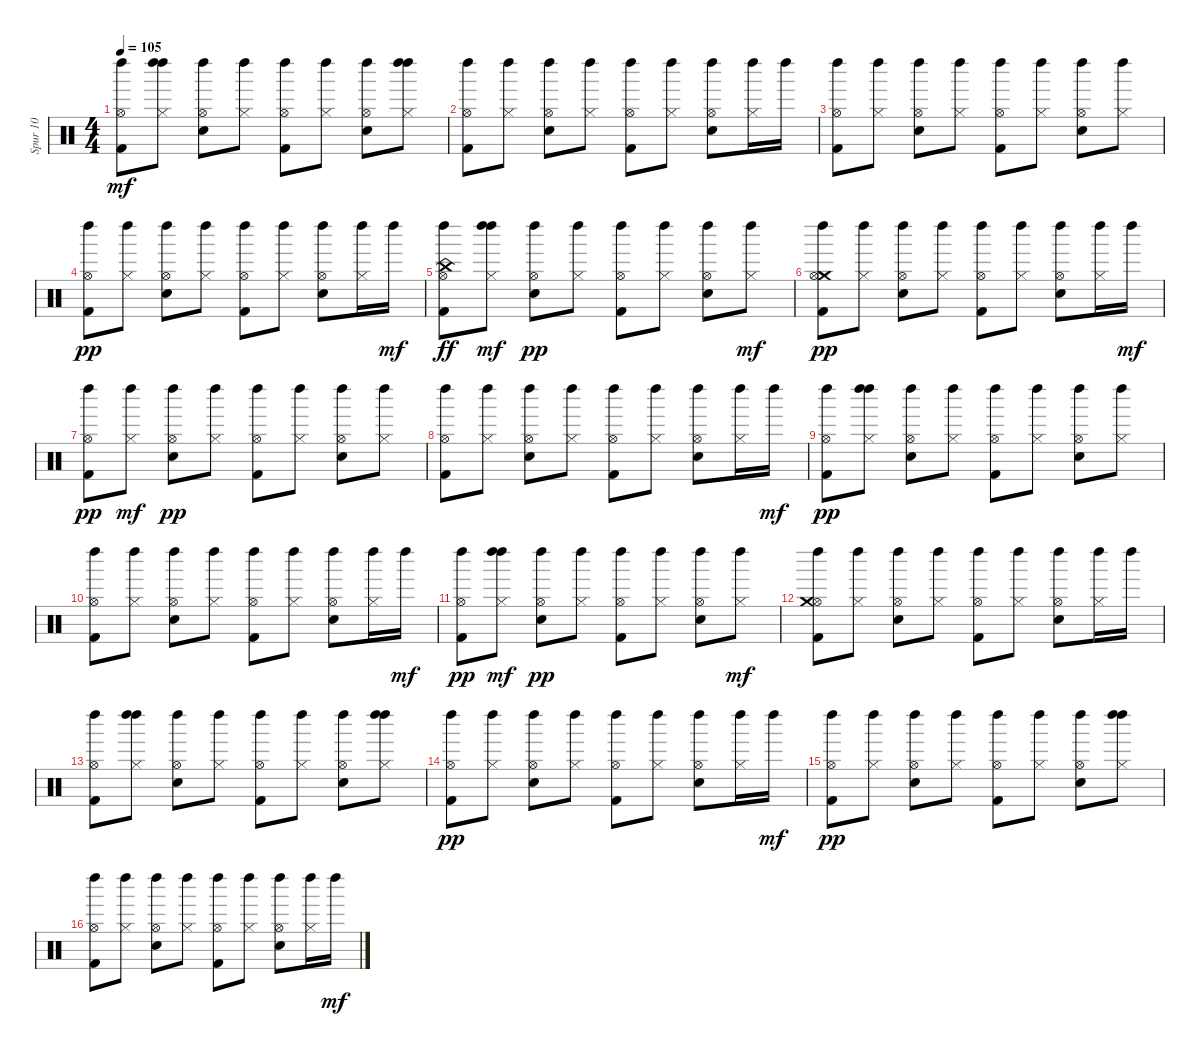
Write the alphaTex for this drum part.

\track ("Spur 10" "Spur 10") {instrument percussion}
\staff {score}
\articulation defaults
\ts (4 4)
\tempo 105
\clef neutral
\ks c
("Hi-Hat (open)" "Kick (hit) 2" "Left Maraca (hit)").8{dy mf} ("Hi-Hat (closed)" "Left Maraca (hit)" "Left Maraca (hit)").8 ("Hi-Hat (open)" "Snare (hit) 2" "Left Maraca (hit)").8 ("Hi-Hat (closed)" "Left Maraca (hit)").8 ("Hi-Hat (open)" "Kick (hit) 2" "Left Maraca (hit)").8 ("Hi-Hat (closed)" "Left Maraca (hit)").8 ("Hi-Hat (open)" "Snare (hit) 2" "Left Maraca (hit)").8 ("Hi-Hat (closed)" "Left Maraca (hit)" "Left Maraca (hit)").8 |
("Hi-Hat (open)" "Left Maraca (hit)" "Kick (hit) 2").8 ("Hi-Hat (closed)" "Left Maraca (hit)").8 ("Hi-Hat (open)" "Left Maraca (hit)" "Snare (hit) 2").8 ("Hi-Hat (closed)" "Left Maraca (hit)").8 ("Hi-Hat (open)" "Left Maraca (hit)" "Kick (hit) 2").8 ("Hi-Hat (closed)" "Left Maraca (hit)").8 ("Hi-Hat (open)" "Left Maraca (hit)" "Snare (hit) 2").8 ("Hi-Hat (closed)" "Left Maraca (hit)").16 "Left Maraca (hit)".16 |
("Hi-Hat (open)" "Left Maraca (hit)" "Kick (hit) 2").8 ("Hi-Hat (closed)" "Left Maraca (hit)").8 ("Hi-Hat (open)" "Left Maraca (hit)" "Snare (hit) 2").8 ("Hi-Hat (closed)" "Left Maraca (hit)").8 ("Hi-Hat (open)" "Left Maraca (hit)" "Kick (hit) 2").8 ("Hi-Hat (closed)" "Left Maraca (hit)").8 ("Hi-Hat (open)" "Left Maraca (hit)" "Snare (hit) 2").8 ("Hi-Hat (closed)" "Left Maraca (hit)").8 |
("Left Maraca (hit)" "Hi-Hat (open)" "Kick (hit) 2").8{dy pp} ("Left Maraca (hit)" "Hi-Hat (closed)").8 ("Left Maraca (hit)" "Hi-Hat (open)" "Snare (hit) 2").8 ("Left Maraca (hit)" "Hi-Hat (closed)").8 ("Left Maraca (hit)" "Hi-Hat (open)" "Kick (hit) 2").8 ("Left Maraca (hit)" "Hi-Hat (closed)").8 ("Left Maraca (hit)" "Hi-Hat (open)" "Snare (hit) 2").8 ("Left Maraca (hit)" "Hi-Hat (closed)").16 "Left Maraca (hit)".16{dy mf} |
("Left Maraca (hit)" "Hi-Hat (open)" "Kick (hit) 2" "China (hit)").8{dy ff} ("Left Maraca (hit)" "Hi-Hat (closed)" "Left Maraca (hit)").8{dy mf} ("Left Maraca (hit)" "Hi-Hat (open)" "Snare (hit) 2").8{dy pp} ("Left Maraca (hit)" "Hi-Hat (closed)").8 ("Left Maraca (hit)" "Hi-Hat (open)" "Kick (hit) 2").8 ("Left Maraca (hit)" "Hi-Hat (closed)").8 ("Left Maraca (hit)" "Hi-Hat (open)" "Snare (hit) 2").8 ("Hi-Hat (closed)" "Left Maraca (hit)").8{dy mf} |
("Crash medium (hit)" "Left Maraca (hit)" "Hi-Hat (open)" "Kick (hit) 2").8{dy pp} ("Left Maraca (hit)" "Hi-Hat (closed)").8 ("Left Maraca (hit)" "Hi-Hat (open)" "Snare (hit) 2").8 ("Left Maraca (hit)" "Hi-Hat (closed)").8 ("Left Maraca (hit)" "Hi-Hat (open)" "Kick (hit) 2").8 ("Left Maraca (hit)" "Hi-Hat (closed)").8 ("Left Maraca (hit)" "Hi-Hat (open)" "Snare (hit) 2").8 ("Left Maraca (hit)" "Hi-Hat (closed)").16 "Left Maraca (hit)".16{dy mf} |
("Left Maraca (hit)" "Hi-Hat (open)" "Kick (hit) 2").8{dy pp} ("Hi-Hat (closed)" "Left Maraca (hit)").8{dy mf} ("Left Maraca (hit)" "Hi-Hat (open)" "Snare (hit) 2").8{dy pp} ("Left Maraca (hit)" "Hi-Hat (closed)").8 ("Left Maraca (hit)" "Hi-Hat (open)" "Kick (hit) 2").8 ("Left Maraca (hit)" "Hi-Hat (closed)").8 ("Left Maraca (hit)" "Hi-Hat (open)" "Snare (hit) 2").8 ("Left Maraca (hit)" "Hi-Hat (closed)").8 |
("Left Maraca (hit)" "Kick (hit) 2" "Hi-Hat (open)").8 ("Left Maraca (hit)" "Hi-Hat (closed)").8 ("Left Maraca (hit)" "Snare (hit) 2" "Hi-Hat (open)").8 ("Left Maraca (hit)" "Hi-Hat (closed)").8 ("Left Maraca (hit)" "Kick (hit) 2" "Hi-Hat (open)").8 ("Left Maraca (hit)" "Hi-Hat (closed)").8 ("Left Maraca (hit)" "Snare (hit) 2" "Hi-Hat (open)").8 ("Left Maraca (hit)" "Hi-Hat (closed)").16 "Left Maraca (hit)".16{dy mf} |
("Left Maraca (hit)" "Kick (hit) 2" "Hi-Hat (open)").8{dy pp} ("Left Maraca (hit)" "Left Maraca (hit)" "Hi-Hat (closed)").8 ("Left Maraca (hit)" "Snare (hit) 2" "Hi-Hat (open)").8 ("Left Maraca (hit)" "Hi-Hat (closed)").8 ("Left Maraca (hit)" "Kick (hit) 2" "Hi-Hat (open)").8 ("Left Maraca (hit)" "Hi-Hat (closed)").8 ("Left Maraca (hit)" "Snare (hit) 2" "Hi-Hat (open)").8 ("Left Maraca (hit)" "Hi-Hat (closed)").8 |
("Kick (hit) 2" "Left Maraca (hit)" "Hi-Hat (open)").8 ("Left Maraca (hit)" "Hi-Hat (closed)").8 ("Snare (hit) 2" "Left Maraca (hit)" "Hi-Hat (open)").8 ("Left Maraca (hit)" "Hi-Hat (closed)").8 ("Kick (hit) 2" "Left Maraca (hit)" "Hi-Hat (open)").8 ("Left Maraca (hit)" "Hi-Hat (closed)").8 ("Snare (hit) 2" "Left Maraca (hit)" "Hi-Hat (open)").8 ("Left Maraca (hit)" "Hi-Hat (closed)").16 "Left Maraca (hit)".16{dy mf} |
("Kick (hit) 2" "Left Maraca (hit)" "Hi-Hat (open)").8{dy pp} ("Left Maraca (hit)" "Hi-Hat (closed)" "Left Maraca (hit)").8{dy mf} ("Snare (hit) 2" "Left Maraca (hit)" "Hi-Hat (open)").8{dy pp} ("Left Maraca (hit)" "Hi-Hat (closed)").8 ("Kick (hit) 2" "Left Maraca (hit)" "Hi-Hat (open)").8 ("Left Maraca (hit)" "Hi-Hat (closed)").8 ("Snare (hit) 2" "Left Maraca (hit)" "Hi-Hat (open)").8 ("Hi-Hat (closed)" "Left Maraca (hit)").8{dy mf} |
("Hi-Hat (open)" "Kick (hit) 2" "Left Maraca (hit)" "Crash medium (hit)").8 ("Hi-Hat (closed)" "Left Maraca (hit)").8 ("Hi-Hat (open)" "Snare (hit) 2" "Left Maraca (hit)").8 ("Hi-Hat (closed)" "Left Maraca (hit)").8 ("Hi-Hat (open)" "Kick (hit) 2" "Left Maraca (hit)").8 ("Hi-Hat (closed)" "Left Maraca (hit)").8 ("Hi-Hat (open)" "Snare (hit) 2" "Left Maraca (hit)").8 ("Hi-Hat (closed)" "Left Maraca (hit)").16 "Left Maraca (hit)".16 |
("Hi-Hat (open)" "Kick (hit) 2" "Left Maraca (hit)").8 ("Hi-Hat (closed)" "Left Maraca (hit)" "Left Maraca (hit)").8 ("Hi-Hat (open)" "Snare (hit) 2" "Left Maraca (hit)").8 ("Hi-Hat (closed)" "Left Maraca (hit)").8 ("Hi-Hat (open)" "Kick (hit) 2" "Left Maraca (hit)").8 ("Hi-Hat (closed)" "Left Maraca (hit)").8 ("Hi-Hat (open)" "Snare (hit) 2" "Left Maraca (hit)").8 ("Hi-Hat (closed)" "Left Maraca (hit)" "Left Maraca (hit)").8 |
("Kick (hit) 2" "Left Maraca (hit)" "Hi-Hat (open)").8{dy pp} ("Left Maraca (hit)" "Hi-Hat (closed)").8 ("Snare (hit) 2" "Left Maraca (hit)" "Hi-Hat (open)").8 ("Left Maraca (hit)" "Hi-Hat (closed)").8 ("Kick (hit) 2" "Left Maraca (hit)" "Hi-Hat (open)").8 ("Left Maraca (hit)" "Hi-Hat (closed)").8 ("Snare (hit) 2" "Left Maraca (hit)" "Hi-Hat (open)").8 ("Left Maraca (hit)" "Hi-Hat (closed)").16 "Left Maraca (hit)".16{dy mf} |
("Kick (hit) 2" "Left Maraca (hit)" "Hi-Hat (open)").8{dy pp} ("Left Maraca (hit)" "Hi-Hat (closed)").8 ("Snare (hit) 2" "Left Maraca (hit)" "Hi-Hat (open)").8 ("Left Maraca (hit)" "Hi-Hat (closed)").8 ("Kick (hit) 2" "Left Maraca (hit)" "Hi-Hat (open)").8 ("Left Maraca (hit)" "Hi-Hat (closed)").8 ("Snare (hit) 2" "Left Maraca (hit)" "Hi-Hat (open)").8 ("Left Maraca (hit)" "Left Maraca (hit)" "Hi-Hat (closed)").8 |
("Left Maraca (hit)" "Kick (hit) 2" "Hi-Hat (open)").8 ("Left Maraca (hit)" "Hi-Hat (closed)").8 ("Left Maraca (hit)" "Snare (hit) 2" "Hi-Hat (open)").8 ("Left Maraca (hit)" "Hi-Hat (closed)").8 ("Left Maraca (hit)" "Kick (hit) 2" "Hi-Hat (open)").8 ("Left Maraca (hit)" "Hi-Hat (closed)").8 ("Left Maraca (hit)" "Snare (hit) 2" "Hi-Hat (open)").8 ("Left Maraca (hit)" "Hi-Hat (closed)").16 "Left Maraca (hit)".16{dy mf}
